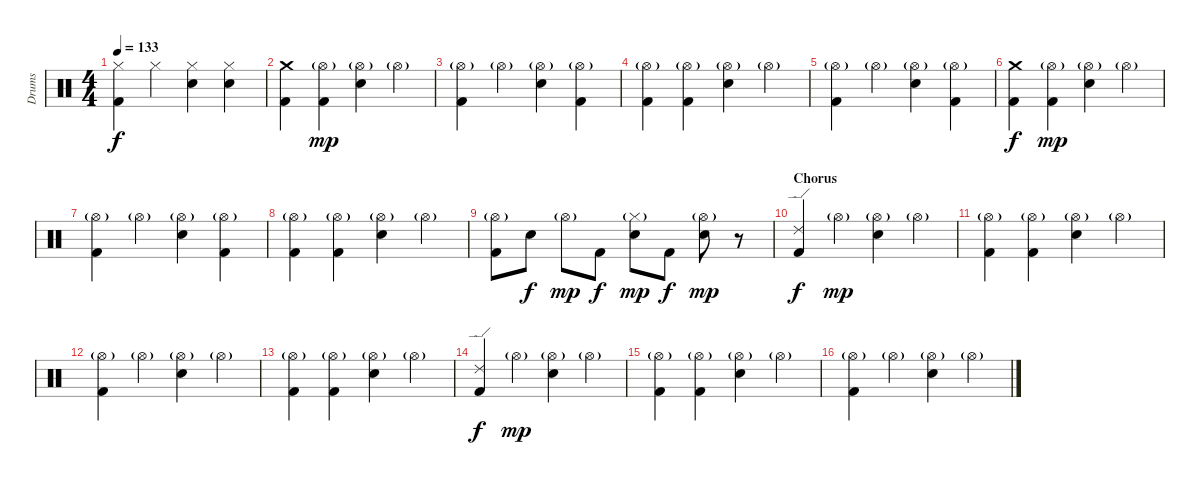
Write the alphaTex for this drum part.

\track ("Drums" "Drums") {instrument percussion}
\staff {score}
\articulation defaults
\ts (4 4)
\tempo 133
\clef neutral
\ks c
("Hi-Hat (closed)" "Kick (hit) 2").4{dy f} "Hi-Hat (closed)".4 ("Hi-Hat (closed)" "Electric Snare (hit)").4 ("Hi-Hat (closed)" "Electric Snare (hit)").4 |
("Crash medium (hit)" "Kick (hit) 2").4 ("Hi-Hat (open)"{g} "Kick (hit) 2").4{dy mp} ("Hi-Hat (open)"{g} "Electric Snare (hit)").4 "Hi-Hat (open)"{g}.4 |
("Hi-Hat (open)"{g} "Kick (hit) 2").4 "Hi-Hat (open)"{g}.4 ("Hi-Hat (open)"{g} "Electric Snare (hit)").4 ("Hi-Hat (open)"{g} "Kick (hit) 2").4 |
("Hi-Hat (open)"{g} "Kick (hit) 2").4 ("Hi-Hat (open)"{g} "Kick (hit) 2").4 ("Hi-Hat (open)"{g} "Electric Snare (hit)").4 "Hi-Hat (open)"{g}.4 |
("Hi-Hat (open)"{g} "Kick (hit) 2").4 "Hi-Hat (open)"{g}.4 ("Hi-Hat (open)"{g} "Electric Snare (hit)").4 ("Hi-Hat (open)"{g} "Kick (hit) 2").4 |
("Crash medium (hit)" "Kick (hit) 2").4{dy f} ("Hi-Hat (open)"{g} "Kick (hit) 2").4{dy mp} ("Hi-Hat (open)"{g} "Electric Snare (hit)").4 "Hi-Hat (open)"{g}.4 |
("Hi-Hat (open)"{g} "Kick (hit) 2").4 "Hi-Hat (open)"{g}.4 ("Hi-Hat (open)"{g} "Electric Snare (hit)").4 ("Hi-Hat (open)"{g} "Kick (hit) 2").4 |
("Hi-Hat (open)"{g} "Kick (hit) 2").4 ("Hi-Hat (open)"{g} "Kick (hit) 2").4 ("Hi-Hat (open)"{g} "Electric Snare (hit)").4 "Hi-Hat (open)"{g}.4 |
("Hi-Hat (open)"{g} "Kick (hit) 2").8 "Electric Snare (hit)".8{dy f} "Hi-Hat (open)"{g}.8{dy mp} "Kick (hit) 2".8{dy f} ("Hi-Hat (closed)"{g} "Electric Snare (hit)").8{dy mp} "Kick (hit) 2".8{dy f} ("Hi-Hat (open)"{g} "Electric Snare (hit)").8{dy mp} r.8 |
\section ("" "Chorus")
("Ride (edge) 2" "Kick (hit) 2").4{dy f} "Hi-Hat (open)"{g}.4{dy mp} ("Hi-Hat (open)"{g} "Electric Snare (hit)").4 "Hi-Hat (open)"{g}.4 |
("Hi-Hat (open)"{g} "Kick (hit) 2").4 ("Hi-Hat (open)"{g} "Kick (hit) 2").4 ("Hi-Hat (open)"{g} "Electric Snare (hit)").4 "Hi-Hat (open)"{g}.4 |
("Hi-Hat (open)"{g} "Kick (hit) 2").4 "Hi-Hat (open)"{g}.4 ("Hi-Hat (open)"{g} "Electric Snare (hit)").4 "Hi-Hat (open)"{g}.4 |
("Hi-Hat (open)"{g} "Kick (hit) 2").4 ("Hi-Hat (open)"{g} "Kick (hit) 2").4 ("Hi-Hat (open)"{g} "Electric Snare (hit)").4 "Hi-Hat (open)"{g}.4 |
("Ride (edge) 2" "Kick (hit) 2").4{dy f} "Hi-Hat (open)"{g}.4{dy mp} ("Hi-Hat (open)"{g} "Electric Snare (hit)").4 "Hi-Hat (open)"{g}.4 |
("Hi-Hat (open)"{g} "Kick (hit) 2").4 ("Hi-Hat (open)"{g} "Kick (hit) 2").4 ("Hi-Hat (open)"{g} "Electric Snare (hit)").4 "Hi-Hat (open)"{g}.4 |
("Hi-Hat (open)"{g} "Kick (hit) 2").4 "Hi-Hat (open)"{g}.4 ("Hi-Hat (open)"{g} "Electric Snare (hit)").4 "Hi-Hat (open)"{g}.4
